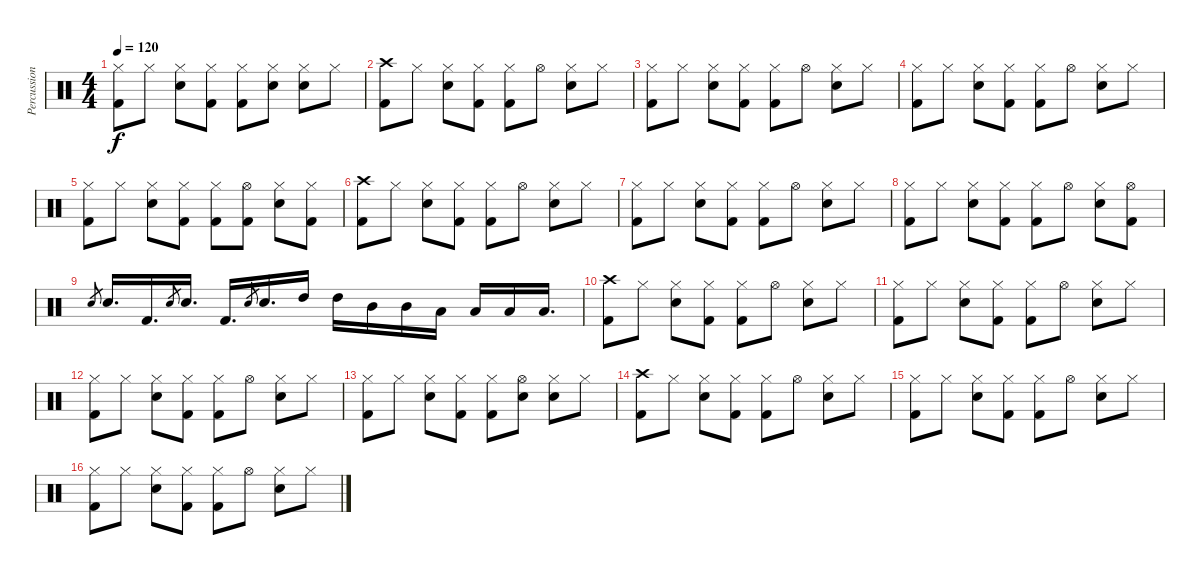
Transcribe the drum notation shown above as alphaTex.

\track ("Percussion" "Percussion") {instrument percussion}
\staff {score}
\articulation defaults
\ts (4 4)
\tempo 120
\clef neutral
\ks c
("Hi-Hat (closed)" "Kick (hit) 2").8{dy f} "Hi-Hat (closed)".8 ("Hi-Hat (closed)" "Electric Snare (hit)").8 ("Hi-Hat (closed)" "Kick (hit) 2").8 ("Hi-Hat (closed)" "Kick (hit) 2").8 ("Hi-Hat (closed)" "Electric Snare (hit)").8 ("Hi-Hat (closed)" "Electric Snare (hit)").8 "Hi-Hat (closed)".8 |
("Crash high (hit)" "Kick (hit) 2").8 "Hi-Hat (closed)".8 ("Hi-Hat (closed)" "Electric Snare (hit)").8 ("Hi-Hat (closed)" "Kick (hit) 2").8 ("Hi-Hat (closed)" "Kick (hit) 2").8 "Hi-Hat (open)".8 ("Hi-Hat (closed)" "Electric Snare (hit)").8 "Hi-Hat (closed)".8 |
("Hi-Hat (closed)" "Kick (hit) 2").8 "Hi-Hat (closed)".8 ("Hi-Hat (closed)" "Electric Snare (hit)").8 ("Hi-Hat (closed)" "Kick (hit) 2").8 ("Hi-Hat (closed)" "Kick (hit) 2").8 "Hi-Hat (open)".8 ("Hi-Hat (closed)" "Electric Snare (hit)").8 "Hi-Hat (closed)".8 |
("Hi-Hat (closed)" "Kick (hit) 2").8 "Hi-Hat (closed)".8 ("Hi-Hat (closed)" "Electric Snare (hit)").8 ("Hi-Hat (closed)" "Kick (hit) 2").8 ("Hi-Hat (closed)" "Kick (hit) 2").8 "Hi-Hat (open)".8 ("Hi-Hat (closed)" "Electric Snare (hit)").8 "Hi-Hat (closed)".8 |
("Hi-Hat (closed)" "Kick (hit) 2").8 "Hi-Hat (closed)".8 ("Hi-Hat (closed)" "Electric Snare (hit)").8 ("Hi-Hat (closed)" "Kick (hit) 2").8 ("Hi-Hat (closed)" "Kick (hit) 2").8 ("Hi-Hat (open)" "Kick (hit) 2").8 ("Hi-Hat (closed)" "Electric Snare (hit)").8 ("Hi-Hat (closed)" "Kick (hit) 2").8 |
("Crash high (hit)" "Kick (hit) 2").8 "Hi-Hat (closed)".8 ("Hi-Hat (closed)" "Electric Snare (hit)").8 ("Hi-Hat (closed)" "Kick (hit) 2").8 ("Hi-Hat (closed)" "Kick (hit) 2").8 "Hi-Hat (open)".8 ("Hi-Hat (closed)" "Electric Snare (hit)").8 "Hi-Hat (closed)".8 |
("Hi-Hat (closed)" "Kick (hit) 2").8 "Hi-Hat (closed)".8 ("Hi-Hat (closed)" "Electric Snare (hit)").8 ("Hi-Hat (closed)" "Kick (hit) 2").8 ("Hi-Hat (closed)" "Kick (hit) 2").8 "Hi-Hat (open)".8 ("Hi-Hat (closed)" "Electric Snare (hit)").8 "Hi-Hat (closed)".8 |
("Hi-Hat (closed)" "Kick (hit) 2").8 "Hi-Hat (closed)".8 ("Hi-Hat (closed)" "Electric Snare (hit)").8 ("Hi-Hat (closed)" "Kick (hit) 2").8 ("Hi-Hat (closed)" "Kick (hit) 2").8 "Hi-Hat (open)".8 ("Hi-Hat (closed)" "Electric Snare (hit)").8 ("Hi-Hat (open)" "Kick (hit) 2").8 |
"Electric Snare (hit)".8{gr} "Electric Snare (hit)".16{d} "Kick (hit) 2".16{d} "Electric Snare (hit)".8{gr} "Electric Snare (hit)".16{d} "Kick (hit) 2".16{d} "Electric Snare (hit)".8{gr} "Electric Snare (hit)".16{d} "High Tom (hit)".16 "High Tom (hit)".16 "Mid Tom (hit)".16 "Mid Tom (hit)".16 "Low Tom (hit)".16 "Low Tom (hit)".16 "Low Tom (hit)".16 "Low Tom (hit)".16{d} |
("Crash high (hit)" "Kick (hit) 2").8 "Hi-Hat (closed)".8 ("Hi-Hat (closed)" "Electric Snare (hit)").8 ("Hi-Hat (closed)" "Kick (hit) 2").8 ("Hi-Hat (closed)" "Kick (hit) 2").8 "Hi-Hat (open)".8 ("Hi-Hat (closed)" "Electric Snare (hit)").8 "Hi-Hat (closed)".8 |
("Hi-Hat (closed)" "Kick (hit) 2").8 "Hi-Hat (closed)".8 ("Hi-Hat (closed)" "Electric Snare (hit)").8 ("Hi-Hat (closed)" "Kick (hit) 2").8 ("Hi-Hat (closed)" "Kick (hit) 2").8 "Hi-Hat (open)".8 ("Hi-Hat (closed)" "Electric Snare (hit)").8 "Hi-Hat (closed)".8 |
("Hi-Hat (closed)" "Kick (hit) 2").8 "Hi-Hat (closed)".8 ("Hi-Hat (closed)" "Electric Snare (hit)").8 ("Hi-Hat (closed)" "Kick (hit) 2").8 ("Hi-Hat (closed)" "Kick (hit) 2").8 "Hi-Hat (open)".8 ("Hi-Hat (closed)" "Electric Snare (hit)").8 "Hi-Hat (closed)".8 |
("Hi-Hat (closed)" "Kick (hit) 2").8 "Hi-Hat (closed)".8 ("Hi-Hat (closed)" "Electric Snare (hit)").8 ("Hi-Hat (closed)" "Kick (hit) 2").8 ("Hi-Hat (closed)" "Kick (hit) 2").8 ("Hi-Hat (open)" "Electric Snare (hit)").8 ("Hi-Hat (closed)" "Electric Snare (hit)").8 "Hi-Hat (closed)".8 |
("Crash high (hit)" "Kick (hit) 2").8 "Hi-Hat (closed)".8 ("Hi-Hat (closed)" "Electric Snare (hit)").8 ("Hi-Hat (closed)" "Kick (hit) 2").8 ("Hi-Hat (closed)" "Kick (hit) 2").8 "Hi-Hat (open)".8 ("Hi-Hat (closed)" "Electric Snare (hit)").8 "Hi-Hat (closed)".8 |
("Hi-Hat (closed)" "Kick (hit) 2").8 "Hi-Hat (closed)".8 ("Hi-Hat (closed)" "Electric Snare (hit)").8 ("Hi-Hat (closed)" "Kick (hit) 2").8 ("Hi-Hat (closed)" "Kick (hit) 2").8 "Hi-Hat (open)".8 ("Hi-Hat (closed)" "Electric Snare (hit)").8 "Hi-Hat (closed)".8 |
("Hi-Hat (closed)" "Kick (hit) 2").8 "Hi-Hat (closed)".8 ("Hi-Hat (closed)" "Electric Snare (hit)").8 ("Hi-Hat (closed)" "Kick (hit) 2").8 ("Hi-Hat (closed)" "Kick (hit) 2").8 "Hi-Hat (open)".8 ("Hi-Hat (closed)" "Electric Snare (hit)").8 "Hi-Hat (closed)".8
